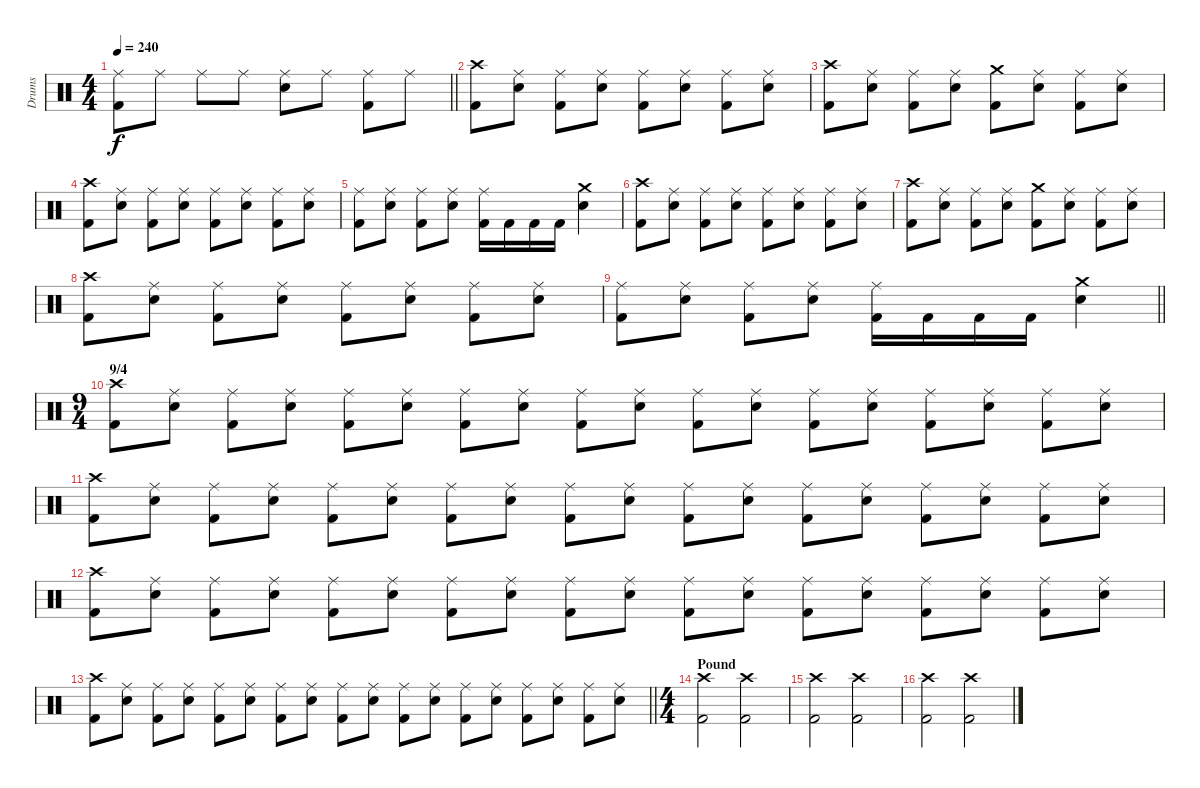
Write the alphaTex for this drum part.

\track ("Drums" "Drums") {instrument percussion}
\staff {score}
\articulation defaults
\ts (4 4)
\tempo 240
\clef neutral
\barLineRight lightlight
\ks c
("Ride (middle)" "Kick (hit) 2").8{dy f} "Ride (middle)".8 "Ride (middle)".8 "Ride (middle)".8 ("Ride (middle)" "Snare (hit) 2").8 "Ride (middle)".8 ("Ride (middle)" "Kick (hit) 2").8 "Ride (middle)".8 |
\section ("" "")
("Crash high (hit)" "Kick (hit) 2").8 ("Ride (middle)" "Snare (hit) 2").8 ("Ride (middle)" "Kick (hit) 2").8 ("Ride (middle)" "Snare (hit) 2").8 ("Ride (middle)" "Kick (hit) 2").8 ("Ride (middle)" "Snare (hit) 2").8 ("Ride (middle)" "Kick (hit) 2").8 ("Ride (middle)" "Snare (hit) 2").8 |
("Crash high (hit)" "Kick (hit) 2").8 ("Ride (middle)" "Snare (hit) 2").8 ("Ride (middle)" "Kick (hit) 2").8 ("Ride (middle)" "Snare (hit) 2").8 ("Crash medium (hit)" "Kick (hit) 2").8 ("Ride (middle)" "Snare (hit) 2").8 ("Ride (middle)" "Kick (hit) 2").8 ("Ride (middle)" "Snare (hit) 2").8 |
("Crash high (hit)" "Kick (hit) 2").8 ("Ride (middle)" "Snare (hit) 2").8 ("Ride (middle)" "Kick (hit) 2").8 ("Ride (middle)" "Snare (hit) 2").8 ("Ride (middle)" "Kick (hit) 2").8 ("Ride (middle)" "Snare (hit) 2").8 ("Ride (middle)" "Kick (hit) 2").8 ("Ride (middle)" "Snare (hit) 2").8 |
("Ride (middle)" "Kick (hit) 2").8 ("Ride (middle)" "Snare (hit) 2").8 ("Ride (middle)" "Kick (hit) 2").8 ("Ride (middle)" "Snare (hit) 2").8 ("Ride (middle)" "Kick (hit) 2").16 "Kick (hit) 2".16 "Kick (hit) 2".16 "Kick (hit) 2".16 ("Crash medium (hit)" "Snare (hit) 2").4 |
("Crash high (hit)" "Kick (hit) 2").8 ("Ride (middle)" "Snare (hit) 2").8 ("Ride (middle)" "Kick (hit) 2").8 ("Ride (middle)" "Snare (hit) 2").8 ("Ride (middle)" "Kick (hit) 2").8 ("Ride (middle)" "Snare (hit) 2").8 ("Ride (middle)" "Kick (hit) 2").8 ("Ride (middle)" "Snare (hit) 2").8 |
("Crash high (hit)" "Kick (hit) 2").8 ("Ride (middle)" "Snare (hit) 2").8 ("Ride (middle)" "Kick (hit) 2").8 ("Ride (middle)" "Snare (hit) 2").8 ("Crash medium (hit)" "Kick (hit) 2").8 ("Ride (middle)" "Snare (hit) 2").8 ("Ride (middle)" "Kick (hit) 2").8 ("Ride (middle)" "Snare (hit) 2").8 |
("Crash high (hit)" "Kick (hit) 2").8 ("Ride (middle)" "Snare (hit) 2").8 ("Ride (middle)" "Kick (hit) 2").8 ("Ride (middle)" "Snare (hit) 2").8 ("Ride (middle)" "Kick (hit) 2").8 ("Ride (middle)" "Snare (hit) 2").8 ("Ride (middle)" "Kick (hit) 2").8 ("Ride (middle)" "Snare (hit) 2").8 |
\barLineRight lightlight
("Ride (middle)" "Kick (hit) 2").8 ("Ride (middle)" "Snare (hit) 2").8 ("Ride (middle)" "Kick (hit) 2").8 ("Ride (middle)" "Snare (hit) 2").8 ("Ride (middle)" "Kick (hit) 2").16 "Kick (hit) 2".16 "Kick (hit) 2".16 "Kick (hit) 2".16 ("Crash medium (hit)" "Snare (hit) 2").4 |
\ts (9 4)
\section ("" "9/4")
("Crash high (hit)" "Kick (hit) 2").8 ("Ride (middle)" "Snare (hit) 2").8 ("Ride (middle)" "Kick (hit) 2").8 ("Ride (middle)" "Snare (hit) 2").8 ("Ride (middle)" "Kick (hit) 2").8 ("Ride (middle)" "Snare (hit) 2").8 ("Ride (middle)" "Kick (hit) 2").8 ("Ride (middle)" "Snare (hit) 2").8 ("Ride (middle)" "Kick (hit) 2").8 ("Ride (middle)" "Snare (hit) 2").8 ("Ride (middle)" "Kick (hit) 2").8 ("Ride (middle)" "Snare (hit) 2").8 ("Ride (middle)" "Kick (hit) 2").8 ("Ride (middle)" "Snare (hit) 2").8 ("Ride (middle)" "Kick (hit) 2").8 ("Ride (middle)" "Snare (hit) 2").8 ("Ride (middle)" "Kick (hit) 2").8 ("Ride (middle)" "Snare (hit) 2").8 |
("Crash high (hit)" "Kick (hit) 2").8 ("Ride (middle)" "Snare (hit) 2").8 ("Ride (middle)" "Kick (hit) 2").8 ("Ride (middle)" "Snare (hit) 2").8 ("Ride (middle)" "Kick (hit) 2").8 ("Ride (middle)" "Snare (hit) 2").8 ("Ride (middle)" "Kick (hit) 2").8 ("Ride (middle)" "Snare (hit) 2").8 ("Ride (middle)" "Kick (hit) 2").8 ("Ride (middle)" "Snare (hit) 2").8 ("Ride (middle)" "Kick (hit) 2").8 ("Ride (middle)" "Snare (hit) 2").8 ("Ride (middle)" "Kick (hit) 2").8 ("Ride (middle)" "Snare (hit) 2").8 ("Ride (middle)" "Kick (hit) 2").8 ("Ride (middle)" "Snare (hit) 2").8 ("Ride (middle)" "Kick (hit) 2").8 ("Ride (middle)" "Snare (hit) 2").8 |
("Crash high (hit)" "Kick (hit) 2").8 ("Ride (middle)" "Snare (hit) 2").8 ("Ride (middle)" "Kick (hit) 2").8 ("Ride (middle)" "Snare (hit) 2").8 ("Ride (middle)" "Kick (hit) 2").8 ("Ride (middle)" "Snare (hit) 2").8 ("Ride (middle)" "Kick (hit) 2").8 ("Ride (middle)" "Snare (hit) 2").8 ("Ride (middle)" "Kick (hit) 2").8 ("Ride (middle)" "Snare (hit) 2").8 ("Ride (middle)" "Kick (hit) 2").8 ("Ride (middle)" "Snare (hit) 2").8 ("Ride (middle)" "Kick (hit) 2").8 ("Ride (middle)" "Snare (hit) 2").8 ("Ride (middle)" "Kick (hit) 2").8 ("Ride (middle)" "Snare (hit) 2").8 ("Ride (middle)" "Kick (hit) 2").8 ("Ride (middle)" "Snare (hit) 2").8 |
\barLineRight lightlight
("Crash high (hit)" "Kick (hit) 2").8 ("Ride (middle)" "Snare (hit) 2").8 ("Ride (middle)" "Kick (hit) 2").8 ("Ride (middle)" "Snare (hit) 2").8 ("Ride (middle)" "Kick (hit) 2").8 ("Ride (middle)" "Snare (hit) 2").8 ("Ride (middle)" "Kick (hit) 2").8 ("Ride (middle)" "Snare (hit) 2").8 ("Ride (middle)" "Kick (hit) 2").8 ("Ride (middle)" "Snare (hit) 2").8 ("Ride (middle)" "Kick (hit) 2").8 ("Ride (middle)" "Snare (hit) 2").8 ("Ride (middle)" "Kick (hit) 2").8 ("Ride (middle)" "Snare (hit) 2").8 ("Ride (middle)" "Kick (hit) 2").8 ("Ride (middle)" "Snare (hit) 2").8 ("Ride (middle)" "Kick (hit) 2").8 ("Ride (middle)" "Snare (hit) 2").8 |
\ts (4 4)
\section ("" "Pound")
("Crash high (hit)" "Kick (hit) 2").2 ("Crash high (hit)" "Kick (hit) 2").2 |
("Crash high (hit)" "Kick (hit) 2").2 ("Crash high (hit)" "Kick (hit) 2").2 |
("Crash high (hit)" "Kick (hit) 2").2 ("Crash high (hit)" "Kick (hit) 2").2
